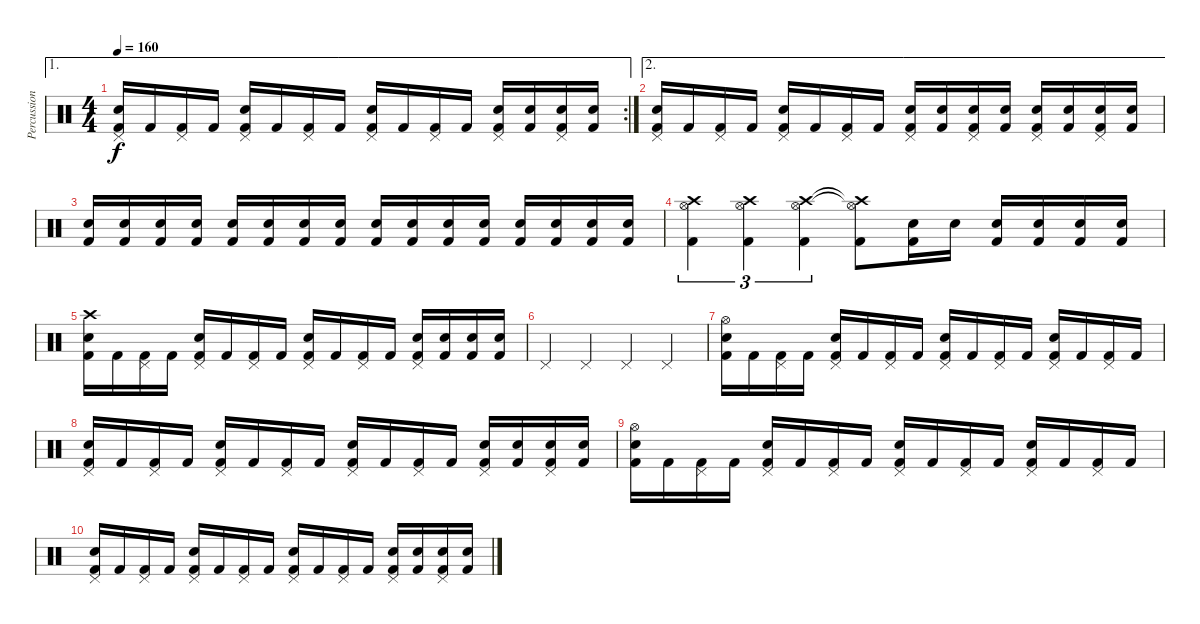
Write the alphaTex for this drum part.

\track ("Percussion" "Percussion") {instrument percussion}
\staff {score}
\articulation defaults
\ae 1
\rc 2
\ts (4 4)
\tempo 160
\clef neutral
\ks c
("Pedal Hi-Hat (hit)" "Snare (hit) 2" "Kick (hit) 2").16{dy f} "Kick (hit) 2".16 ("Pedal Hi-Hat (hit)" "Kick (hit) 2").16 "Kick (hit) 2".16 ("Pedal Hi-Hat (hit)" "Snare (hit) 2" "Kick (hit) 2").16 "Kick (hit) 2".16 ("Pedal Hi-Hat (hit)" "Kick (hit) 2").16 "Kick (hit) 2".16 ("Pedal Hi-Hat (hit)" "Snare (hit) 2" "Kick (hit) 2").16 "Kick (hit) 2".16 ("Pedal Hi-Hat (hit)" "Kick (hit) 2").16 "Kick (hit) 2".16 ("Pedal Hi-Hat (hit)" "Snare (hit) 2" "Kick (hit) 2").16 ("Snare (hit) 2" "Kick (hit) 2").16 ("Pedal Hi-Hat (hit)" "Snare (hit) 2" "Kick (hit) 2").16 ("Snare (hit) 2" "Kick (hit) 2").16 |
\ae 2
("Pedal Hi-Hat (hit)" "Snare (hit) 2" "Kick (hit) 2").16 "Kick (hit) 2".16 ("Pedal Hi-Hat (hit)" "Kick (hit) 2").16 "Kick (hit) 2".16 ("Pedal Hi-Hat (hit)" "Snare (hit) 2" "Kick (hit) 2").16 "Kick (hit) 2".16 ("Pedal Hi-Hat (hit)" "Kick (hit) 2").16 "Kick (hit) 2".16 ("Pedal Hi-Hat (hit)" "Snare (hit) 2" "Kick (hit) 2").16 ("Snare (hit) 2" "Kick (hit) 2").16 ("Pedal Hi-Hat (hit)" "Snare (hit) 2" "Kick (hit) 2").16 ("Snare (hit) 2" "Kick (hit) 2").16 ("Pedal Hi-Hat (hit)" "Snare (hit) 2" "Kick (hit) 2").16 ("Snare (hit) 2" "Kick (hit) 2").16 ("Pedal Hi-Hat (hit)" "Snare (hit) 2" "Kick (hit) 2").16 ("Snare (hit) 2" "Kick (hit) 2").16 |
("Snare (hit) 2" "Kick (hit) 2").16 ("Snare (hit) 2" "Kick (hit) 2").16 ("Snare (hit) 2" "Kick (hit) 2").16 ("Snare (hit) 2" "Kick (hit) 2").16 ("Snare (hit) 2" "Kick (hit) 2").16 ("Snare (hit) 2" "Kick (hit) 2").16 ("Snare (hit) 2" "Kick (hit) 2").16 ("Snare (hit) 2" "Kick (hit) 2").16 ("Snare (hit) 2" "Kick (hit) 2").16 ("Snare (hit) 2" "Kick (hit) 2").16 ("Snare (hit) 2" "Kick (hit) 2").16 ("Snare (hit) 2" "Kick (hit) 2").16 ("Snare (hit) 2" "Kick (hit) 2").16 ("Snare (hit) 2" "Kick (hit) 2").16 ("Snare (hit) 2" "Kick (hit) 2").16 ("Snare (hit) 2" "Kick (hit) 2").16 |
("Crash high (hit)" "Hi-Hat (open)" "Kick (hit) 2").4{tu (3 2)} ("Crash high (hit)" "Hi-Hat (open)" "Kick (hit) 2").4{tu (3 2)} ("Crash high (hit)" "Hi-Hat (open)" "Kick (hit) 2").4{tu (3 2)} ("Crash high (hit)"{t} "Hi-Hat (open)"{t} "Kick (hit) 2").8 ("Snare (hit) 2" "Kick (hit) 2").16 "Snare (hit) 2".16 ("Snare (hit) 2" "Kick (hit) 2").16 ("Snare (hit) 2" "Kick (hit) 2").16 ("Snare (hit) 2" "Kick (hit) 2").16 ("Snare (hit) 2" "Kick (hit) 2").16 |
("Crash high (hit)" "Snare (hit) 2" "Kick (hit) 2").16 "Kick (hit) 2".16 ("Pedal Hi-Hat (hit)" "Kick (hit) 2").16 "Kick (hit) 2".16 ("Pedal Hi-Hat (hit)" "Snare (hit) 2" "Kick (hit) 2").16 "Kick (hit) 2".16 ("Pedal Hi-Hat (hit)" "Kick (hit) 2").16 "Kick (hit) 2".16 ("Pedal Hi-Hat (hit)" "Snare (hit) 2" "Kick (hit) 2").16 "Kick (hit) 2".16 ("Pedal Hi-Hat (hit)" "Kick (hit) 2").16 "Kick (hit) 2".16 ("Pedal Hi-Hat (hit)" "Snare (hit) 2" "Kick (hit) 2").16 ("Snare (hit) 2" "Kick (hit) 2").16 ("Snare (hit) 2" "Kick (hit) 2").16 ("Snare (hit) 2" "Kick (hit) 2").16 |
"Pedal Hi-Hat (hit)".4 "Pedal Hi-Hat (hit)".4 "Pedal Hi-Hat (hit)".4 "Pedal Hi-Hat (hit)".4 |
("Hi-Hat (open)" "Snare (hit) 2" "Kick (hit) 2").16 "Kick (hit) 2".16 ("Pedal Hi-Hat (hit)" "Kick (hit) 2").16 "Kick (hit) 2".16 ("Pedal Hi-Hat (hit)" "Snare (hit) 2" "Kick (hit) 2").16 "Kick (hit) 2".16 ("Pedal Hi-Hat (hit)" "Kick (hit) 2").16 "Kick (hit) 2".16 ("Pedal Hi-Hat (hit)" "Snare (hit) 2" "Kick (hit) 2").16 "Kick (hit) 2".16 ("Pedal Hi-Hat (hit)" "Kick (hit) 2").16 "Kick (hit) 2".16 ("Pedal Hi-Hat (hit)" "Snare (hit) 2" "Kick (hit) 2").16 "Kick (hit) 2".16 ("Pedal Hi-Hat (hit)" "Kick (hit) 2").16 "Kick (hit) 2".16 |
("Pedal Hi-Hat (hit)" "Snare (hit) 2" "Kick (hit) 2").16 "Kick (hit) 2".16 ("Pedal Hi-Hat (hit)" "Kick (hit) 2").16 "Kick (hit) 2".16 ("Pedal Hi-Hat (hit)" "Snare (hit) 2" "Kick (hit) 2").16 "Kick (hit) 2".16 ("Pedal Hi-Hat (hit)" "Kick (hit) 2").16 "Kick (hit) 2".16 ("Pedal Hi-Hat (hit)" "Snare (hit) 2" "Kick (hit) 2").16 "Kick (hit) 2".16 ("Pedal Hi-Hat (hit)" "Kick (hit) 2").16 "Kick (hit) 2".16 ("Pedal Hi-Hat (hit)" "Snare (hit) 2" "Kick (hit) 2").16 ("Snare (hit) 2" "Kick (hit) 2").16 ("Pedal Hi-Hat (hit)" "Snare (hit) 2" "Kick (hit) 2").16 ("Snare (hit) 2" "Kick (hit) 2").16 |
("Hi-Hat (open)" "Snare (hit) 2" "Kick (hit) 2").16 "Kick (hit) 2".16 ("Pedal Hi-Hat (hit)" "Kick (hit) 2").16 "Kick (hit) 2".16 ("Pedal Hi-Hat (hit)" "Snare (hit) 2" "Kick (hit) 2").16 "Kick (hit) 2".16 ("Pedal Hi-Hat (hit)" "Kick (hit) 2").16 "Kick (hit) 2".16 ("Pedal Hi-Hat (hit)" "Snare (hit) 2" "Kick (hit) 2").16 "Kick (hit) 2".16 ("Pedal Hi-Hat (hit)" "Kick (hit) 2").16 "Kick (hit) 2".16 ("Pedal Hi-Hat (hit)" "Snare (hit) 2" "Kick (hit) 2").16 "Kick (hit) 2".16 ("Pedal Hi-Hat (hit)" "Kick (hit) 2").16 "Kick (hit) 2".16 |
("Pedal Hi-Hat (hit)" "Snare (hit) 2" "Kick (hit) 2").16 "Kick (hit) 2".16 ("Pedal Hi-Hat (hit)" "Kick (hit) 2").16 "Kick (hit) 2".16 ("Pedal Hi-Hat (hit)" "Snare (hit) 2" "Kick (hit) 2").16 "Kick (hit) 2".16 ("Pedal Hi-Hat (hit)" "Kick (hit) 2").16 "Kick (hit) 2".16 ("Pedal Hi-Hat (hit)" "Snare (hit) 2" "Kick (hit) 2").16 "Kick (hit) 2".16 ("Pedal Hi-Hat (hit)" "Kick (hit) 2").16 "Kick (hit) 2".16 ("Pedal Hi-Hat (hit)" "Snare (hit) 2" "Kick (hit) 2").16 ("Snare (hit) 2" "Kick (hit) 2").16 ("Pedal Hi-Hat (hit)" "Snare (hit) 2" "Kick (hit) 2").16 ("Snare (hit) 2" "Kick (hit) 2").16
